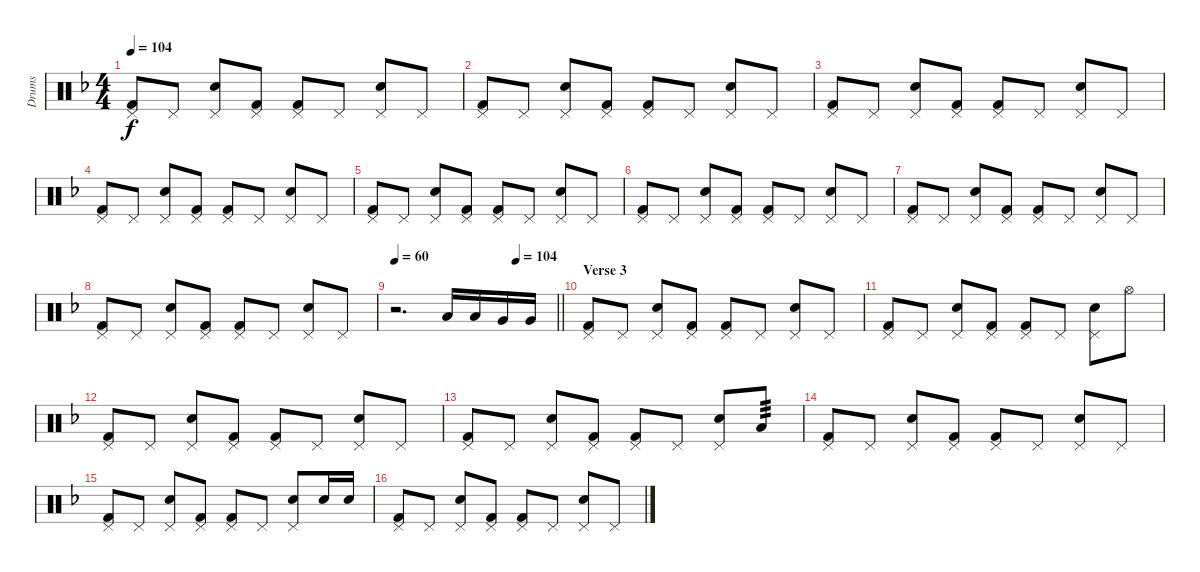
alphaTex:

\track ("Drums" "Drums") {instrument percussion}
\staff {score}
\articulation defaults
\ts (4 4)
\tempo 104
\clef neutral
\ks f
("Pedal Hi-Hat (hit)" "Kick (hit) 2").8{dy f} "Pedal Hi-Hat (hit)".8 ("Pedal Hi-Hat (hit)" "Electric Snare (hit)").8 ("Pedal Hi-Hat (hit)" "Kick (hit) 2").8 ("Pedal Hi-Hat (hit)" "Kick (hit) 2").8 "Pedal Hi-Hat (hit)".8 ("Pedal Hi-Hat (hit)" "Electric Snare (hit)").8 "Pedal Hi-Hat (hit)".8 |
("Pedal Hi-Hat (hit)" "Kick (hit) 2").8 "Pedal Hi-Hat (hit)".8 ("Pedal Hi-Hat (hit)" "Electric Snare (hit)").8 ("Pedal Hi-Hat (hit)" "Kick (hit) 2").8 ("Pedal Hi-Hat (hit)" "Kick (hit) 2").8 "Pedal Hi-Hat (hit)".8 ("Pedal Hi-Hat (hit)" "Electric Snare (hit)").8 "Pedal Hi-Hat (hit)".8 |
("Pedal Hi-Hat (hit)" "Kick (hit) 2").8 "Pedal Hi-Hat (hit)".8 ("Pedal Hi-Hat (hit)" "Electric Snare (hit)").8 ("Pedal Hi-Hat (hit)" "Kick (hit) 2").8 ("Pedal Hi-Hat (hit)" "Kick (hit) 2").8 "Pedal Hi-Hat (hit)".8 ("Pedal Hi-Hat (hit)" "Electric Snare (hit)").8 "Pedal Hi-Hat (hit)".8 |
("Pedal Hi-Hat (hit)" "Kick (hit) 2").8 "Pedal Hi-Hat (hit)".8 ("Pedal Hi-Hat (hit)" "Electric Snare (hit)").8 ("Pedal Hi-Hat (hit)" "Kick (hit) 2").8 ("Pedal Hi-Hat (hit)" "Kick (hit) 2").8 "Pedal Hi-Hat (hit)".8 ("Pedal Hi-Hat (hit)" "Electric Snare (hit)").8 "Pedal Hi-Hat (hit)".8 |
("Pedal Hi-Hat (hit)" "Kick (hit) 2").8 "Pedal Hi-Hat (hit)".8 ("Pedal Hi-Hat (hit)" "Electric Snare (hit)").8 ("Pedal Hi-Hat (hit)" "Kick (hit) 2").8 ("Pedal Hi-Hat (hit)" "Kick (hit) 2").8 "Pedal Hi-Hat (hit)".8 ("Pedal Hi-Hat (hit)" "Electric Snare (hit)").8 "Pedal Hi-Hat (hit)".8 |
("Pedal Hi-Hat (hit)" "Kick (hit) 2").8 "Pedal Hi-Hat (hit)".8 ("Pedal Hi-Hat (hit)" "Electric Snare (hit)").8 ("Pedal Hi-Hat (hit)" "Kick (hit) 2").8 ("Pedal Hi-Hat (hit)" "Kick (hit) 2").8 "Pedal Hi-Hat (hit)".8 ("Pedal Hi-Hat (hit)" "Electric Snare (hit)").8 "Pedal Hi-Hat (hit)".8 |
("Pedal Hi-Hat (hit)" "Kick (hit) 2").8 "Pedal Hi-Hat (hit)".8 ("Pedal Hi-Hat (hit)" "Electric Snare (hit)").8 ("Pedal Hi-Hat (hit)" "Kick (hit) 2").8 ("Pedal Hi-Hat (hit)" "Kick (hit) 2").8 "Pedal Hi-Hat (hit)".8 ("Pedal Hi-Hat (hit)" "Electric Snare (hit)").8 "Pedal Hi-Hat (hit)".8 |
("Pedal Hi-Hat (hit)" "Kick (hit) 2").8 "Pedal Hi-Hat (hit)".8 ("Pedal Hi-Hat (hit)" "Electric Snare (hit)").8 ("Pedal Hi-Hat (hit)" "Kick (hit) 2").8 ("Pedal Hi-Hat (hit)" "Kick (hit) 2").8 "Pedal Hi-Hat (hit)".8 ("Pedal Hi-Hat (hit)" "Electric Snare (hit)").8 "Pedal Hi-Hat (hit)".8 |
\tempo 60
\tempo (104 0.75)
\barLineRight lightlight
r.2{d} "Low Tom (hit)".16 "Low Tom (hit)".16 "Very Low Tom (hit)".16 "Very Low Tom (hit)".16 |
\section ("" "Verse 3")
("Pedal Hi-Hat (hit)" "Kick (hit) 2").8 "Pedal Hi-Hat (hit)".8 ("Pedal Hi-Hat (hit)" "Electric Snare (hit)").8 ("Pedal Hi-Hat (hit)" "Kick (hit) 2").8 ("Pedal Hi-Hat (hit)" "Kick (hit) 2").8 "Pedal Hi-Hat (hit)".8 ("Pedal Hi-Hat (hit)" "Electric Snare (hit)").8 "Pedal Hi-Hat (hit)".8 |
("Pedal Hi-Hat (hit)" "Kick (hit) 2").8 "Pedal Hi-Hat (hit)".8 ("Pedal Hi-Hat (hit)" "Electric Snare (hit)").8 ("Pedal Hi-Hat (hit)" "Kick (hit) 2").8 ("Pedal Hi-Hat (hit)" "Kick (hit) 2").8 "Pedal Hi-Hat (hit)".8 ("Pedal Hi-Hat (hit)" "Electric Snare (hit)").8 "Hi-Hat (open)".8 |
("Pedal Hi-Hat (hit)" "Kick (hit) 2").8 "Pedal Hi-Hat (hit)".8 ("Pedal Hi-Hat (hit)" "Electric Snare (hit)").8 ("Pedal Hi-Hat (hit)" "Kick (hit) 2").8 ("Pedal Hi-Hat (hit)" "Kick (hit) 2").8 "Pedal Hi-Hat (hit)".8 ("Pedal Hi-Hat (hit)" "Electric Snare (hit)").8 "Pedal Hi-Hat (hit)".8 |
("Pedal Hi-Hat (hit)" "Kick (hit) 2").8 "Pedal Hi-Hat (hit)".8 ("Pedal Hi-Hat (hit)" "Electric Snare (hit)").8 ("Pedal Hi-Hat (hit)" "Kick (hit) 2").8 ("Pedal Hi-Hat (hit)" "Kick (hit) 2").8 "Pedal Hi-Hat (hit)".8 ("Pedal Hi-Hat (hit)" "Electric Snare (hit)").8 "Low Tom (hit)".8{tp 3} |
("Pedal Hi-Hat (hit)" "Kick (hit) 2").8 "Pedal Hi-Hat (hit)".8 ("Pedal Hi-Hat (hit)" "Electric Snare (hit)").8 ("Pedal Hi-Hat (hit)" "Kick (hit) 2").8 ("Pedal Hi-Hat (hit)" "Kick (hit) 2").8 "Pedal Hi-Hat (hit)".8 ("Pedal Hi-Hat (hit)" "Electric Snare (hit)").8 "Pedal Hi-Hat (hit)".8 |
("Pedal Hi-Hat (hit)" "Kick (hit) 2").8 "Pedal Hi-Hat (hit)".8 ("Pedal Hi-Hat (hit)" "Electric Snare (hit)").8 ("Pedal Hi-Hat (hit)" "Kick (hit) 2").8 ("Pedal Hi-Hat (hit)" "Kick (hit) 2").8 "Pedal Hi-Hat (hit)".8 ("Pedal Hi-Hat (hit)" "Electric Snare (hit)").8 "Electric Snare (hit)".16 "Electric Snare (hit)".16 |
("Pedal Hi-Hat (hit)" "Kick (hit) 2").8 "Pedal Hi-Hat (hit)".8 ("Pedal Hi-Hat (hit)" "Electric Snare (hit)").8 ("Pedal Hi-Hat (hit)" "Kick (hit) 2").8 ("Pedal Hi-Hat (hit)" "Kick (hit) 2").8 "Pedal Hi-Hat (hit)".8 ("Pedal Hi-Hat (hit)" "Electric Snare (hit)").8 "Pedal Hi-Hat (hit)".8
